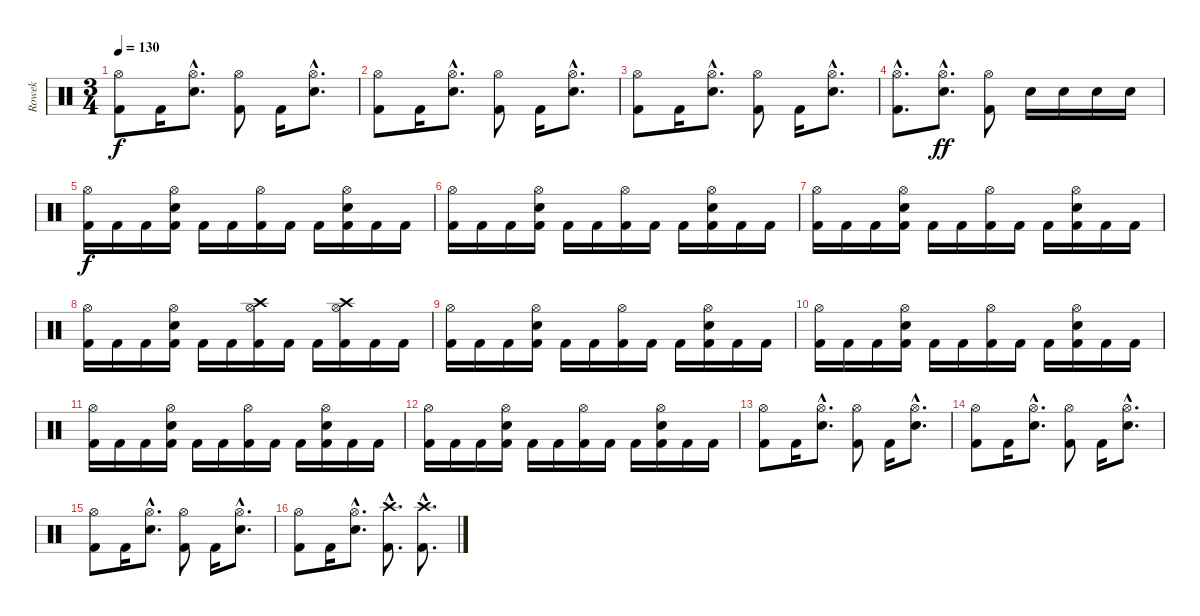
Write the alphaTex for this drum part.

\track ("Rowek" "Rowek") {instrument percussion}
\staff {score}
\articulation defaults
\ts (3 4)
\tempo 130
\clef neutral
\ks c
("Hi-Hat (open)" "Kick (hit) 2").8{dy f} "Kick (hit) 2".16 ("Hi-Hat (open)"{hac} "Snare (hit) 2"{hac}).8{d} ("Hi-Hat (open)" "Kick (hit) 2").8 "Kick (hit) 2".16 ("Hi-Hat (open)"{hac} "Snare (hit) 2"{hac}).8{d} |
("Hi-Hat (open)" "Kick (hit) 2").8 "Kick (hit) 2".16 ("Hi-Hat (open)"{hac} "Snare (hit) 2"{hac}).8{d} ("Hi-Hat (open)" "Kick (hit) 2").8 "Kick (hit) 2".16 ("Hi-Hat (open)"{hac} "Snare (hit) 2"{hac}).8{d} |
("Hi-Hat (open)" "Kick (hit) 2").8 "Kick (hit) 2".16 ("Hi-Hat (open)"{hac} "Snare (hit) 2"{hac}).8{d} ("Hi-Hat (open)" "Kick (hit) 2").8 "Kick (hit) 2".16 ("Hi-Hat (open)"{hac} "Snare (hit) 2"{hac}).8{d} |
("Hi-Hat (open)"{hac} "Kick (hit) 2"{hac}).8{d} ("Hi-Hat (open)"{hac} "Snare (hit) 2"{hac}).8{d dy ff} ("Hi-Hat (open)" "Kick (hit) 2").8 "Electric Snare (hit)".16 "Electric Snare (hit)".16 "Electric Snare (hit)".16 "Electric Snare (hit)".16 |
("Hi-Hat (open)" "Kick (hit) 2").16{dy f} "Kick (hit) 2".16 "Kick (hit) 2".16 ("Hi-Hat (open)" "Snare (hit) 2" "Kick (hit) 2").16 "Kick (hit) 2".16 "Kick (hit) 2".16 ("Hi-Hat (open)" "Kick (hit) 2").16 "Kick (hit) 2".16 "Kick (hit) 2".16 ("Hi-Hat (open)" "Snare (hit) 2" "Kick (hit) 2").16 "Kick (hit) 2".16 "Kick (hit) 2".16 |
("Hi-Hat (open)" "Kick (hit) 2").16 "Kick (hit) 2".16 "Kick (hit) 2".16 ("Hi-Hat (open)" "Snare (hit) 2" "Kick (hit) 2").16 "Kick (hit) 2".16 "Kick (hit) 2".16 ("Hi-Hat (open)" "Kick (hit) 2").16 "Kick (hit) 2".16 "Kick (hit) 2".16 ("Hi-Hat (open)" "Snare (hit) 2" "Kick (hit) 2").16 "Kick (hit) 2".16 "Kick (hit) 2".16 |
("Hi-Hat (open)" "Kick (hit) 2").16 "Kick (hit) 2".16 "Kick (hit) 2".16 ("Hi-Hat (open)" "Snare (hit) 2" "Kick (hit) 2").16 "Kick (hit) 2".16 "Kick (hit) 2".16 ("Hi-Hat (open)" "Kick (hit) 2").16 "Kick (hit) 2".16 "Kick (hit) 2".16 ("Hi-Hat (open)" "Snare (hit) 2" "Kick (hit) 2").16 "Kick (hit) 2".16 "Kick (hit) 2".16 |
("Hi-Hat (open)" "Kick (hit) 2").16 "Kick (hit) 2".16 "Kick (hit) 2".16 ("Hi-Hat (open)" "Snare (hit) 2" "Kick (hit) 2").16 "Kick (hit) 2".16 "Kick (hit) 2".16 ("Hi-Hat (open)" "Crash high (hit)" "Kick (hit) 2").16 "Kick (hit) 2".16 "Kick (hit) 2".16 ("Hi-Hat (open)" "Crash high (hit)" "Kick (hit) 2").16 "Kick (hit) 2".16 "Kick (hit) 2".16 |
("Hi-Hat (open)" "Kick (hit) 2").16 "Kick (hit) 2".16 "Kick (hit) 2".16 ("Hi-Hat (open)" "Snare (hit) 2" "Kick (hit) 2").16 "Kick (hit) 2".16 "Kick (hit) 2".16 ("Hi-Hat (open)" "Kick (hit) 2").16 "Kick (hit) 2".16 "Kick (hit) 2".16 ("Hi-Hat (open)" "Snare (hit) 2" "Kick (hit) 2").16 "Kick (hit) 2".16 "Kick (hit) 2".16 |
("Hi-Hat (open)" "Kick (hit) 2").16 "Kick (hit) 2".16 "Kick (hit) 2".16 ("Hi-Hat (open)" "Snare (hit) 2" "Kick (hit) 2").16 "Kick (hit) 2".16 "Kick (hit) 2".16 ("Hi-Hat (open)" "Kick (hit) 2").16 "Kick (hit) 2".16 "Kick (hit) 2".16 ("Hi-Hat (open)" "Snare (hit) 2" "Kick (hit) 2").16 "Kick (hit) 2".16 "Kick (hit) 2".16 |
("Hi-Hat (open)" "Kick (hit) 2").16 "Kick (hit) 2".16 "Kick (hit) 2".16 ("Hi-Hat (open)" "Snare (hit) 2" "Kick (hit) 2").16 "Kick (hit) 2".16 "Kick (hit) 2".16 ("Hi-Hat (open)" "Kick (hit) 2").16 "Kick (hit) 2".16 "Kick (hit) 2".16 ("Hi-Hat (open)" "Snare (hit) 2" "Kick (hit) 2").16 "Kick (hit) 2".16 "Kick (hit) 2".16 |
("Hi-Hat (open)" "Kick (hit) 2").16 "Kick (hit) 2".16 "Kick (hit) 2".16 ("Hi-Hat (open)" "Snare (hit) 2" "Kick (hit) 2").16 "Kick (hit) 2".16 "Kick (hit) 2".16 ("Hi-Hat (open)" "Kick (hit) 2").16 "Kick (hit) 2".16 "Kick (hit) 2".16 ("Hi-Hat (open)" "Snare (hit) 2" "Kick (hit) 2").16 "Kick (hit) 2".16 "Kick (hit) 2".16 |
("Hi-Hat (open)" "Kick (hit) 2").8 "Kick (hit) 2".16 ("Hi-Hat (open)"{hac} "Snare (hit) 2"{hac}).8{d} ("Hi-Hat (open)" "Kick (hit) 2").8 "Kick (hit) 2".16 ("Hi-Hat (open)"{hac} "Snare (hit) 2"{hac}).8{d} |
("Hi-Hat (open)" "Kick (hit) 2").8 "Kick (hit) 2".16 ("Hi-Hat (open)"{hac} "Snare (hit) 2"{hac}).8{d} ("Hi-Hat (open)" "Kick (hit) 2").8 "Kick (hit) 2".16 ("Hi-Hat (open)"{hac} "Snare (hit) 2"{hac}).8{d} |
("Hi-Hat (open)" "Kick (hit) 2").8 "Kick (hit) 2".16 ("Hi-Hat (open)"{hac} "Snare (hit) 2"{hac}).8{d} ("Hi-Hat (open)" "Kick (hit) 2").8 "Kick (hit) 2".16 ("Hi-Hat (open)"{hac} "Snare (hit) 2"{hac}).8{d} |
("Hi-Hat (open)" "Kick (hit) 2").8 "Kick (hit) 2".16 ("Hi-Hat (open)"{hac} "Snare (hit) 2"{hac}).8{d} ("Crash high (hit)"{hac} "Kick (hit) 2"{hac}).8{d} ("Crash high (hit)"{hac} "Kick (hit) 2"{hac}).8{d}
